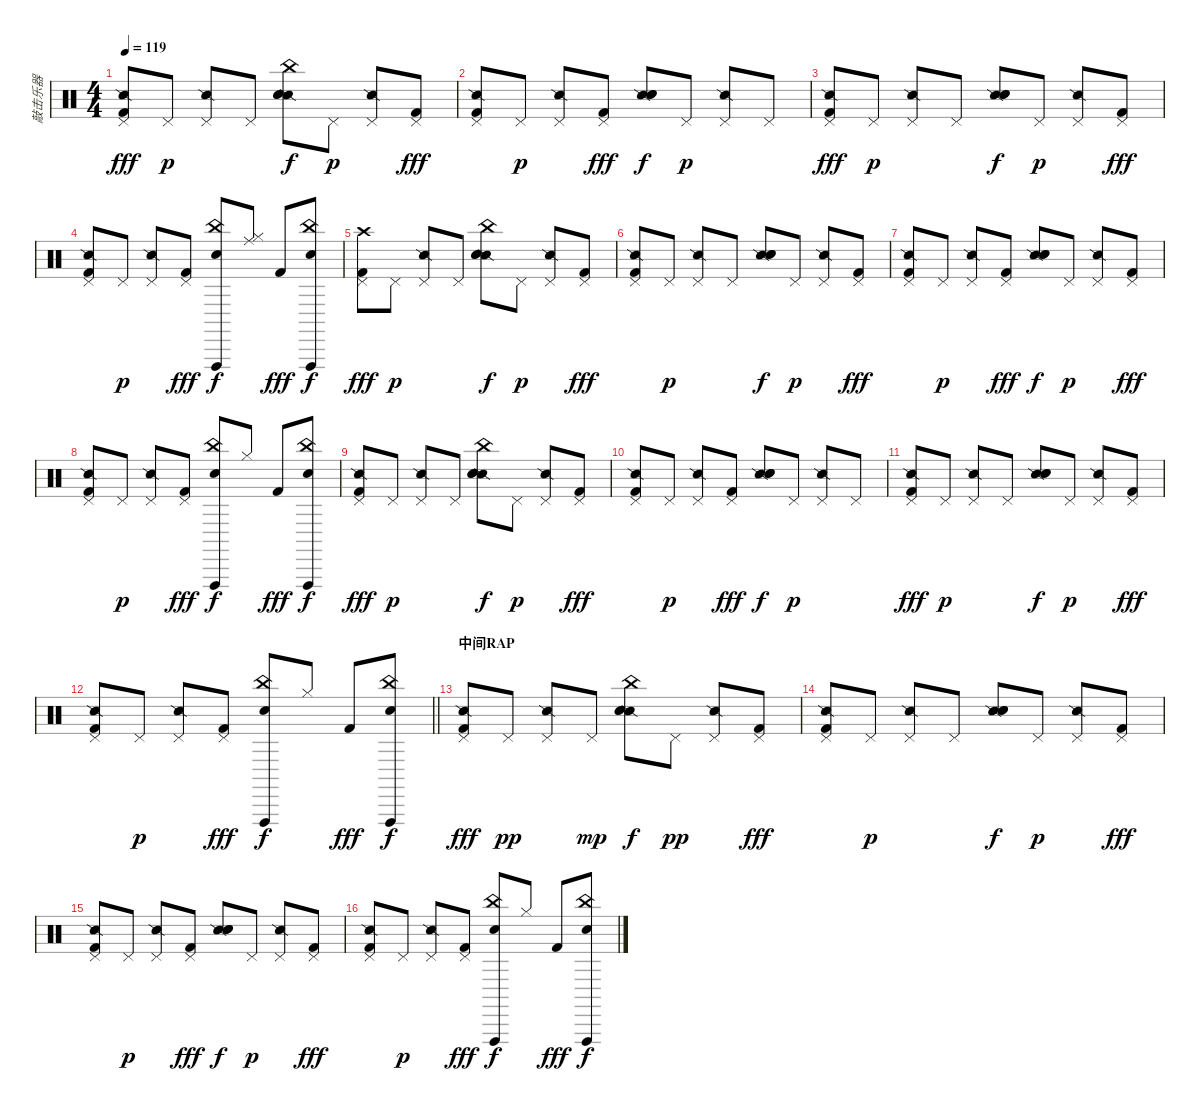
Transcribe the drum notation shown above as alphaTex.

\track ("敲击乐器" "敲击乐器") {instrument percussion}
\staff {score}
\articulation defaults
\ts (4 4)
\tempo 119
\clef neutral
\ks c
("Snare (side stick) 2" "Pedal Hi-Hat (hit)" "Kick (hit) 2").8{dy fff} "Pedal Hi-Hat (hit)".8{dy p} ("Snare (side stick) 2" "Pedal Hi-Hat (hit)").8 "Pedal Hi-Hat (hit)".8 ("Snare (side stick) 2" "Snare (hit) 2" "Hand Clap (hit)" "China (hit)").8{dy f} "Pedal Hi-Hat (hit)".8{dy p} ("Snare (side stick) 2" "Pedal Hi-Hat (hit)").8 ("Pedal Hi-Hat (hit)" "Kick (hit) 2").8{dy fff} |
("Snare (side stick) 2" "Pedal Hi-Hat (hit)" "Kick (hit) 2").8 "Pedal Hi-Hat (hit)".8{dy p} ("Snare (side stick) 2" "Pedal Hi-Hat (hit)").8 ("Pedal Hi-Hat (hit)" "Kick (hit) 2").8{dy fff} ("Snare (side stick) 2" "Snare (hit) 2" "Hand Clap (hit)").8{dy f} "Pedal Hi-Hat (hit)".8{dy p} ("Snare (side stick) 2" "Pedal Hi-Hat (hit)").8 "Pedal Hi-Hat (hit)".8 |
("Snare (side stick) 2" "Pedal Hi-Hat (hit)" "Kick (hit) 2").8{dy fff} "Pedal Hi-Hat (hit)".8{dy p} ("Snare (side stick) 2" "Pedal Hi-Hat (hit)").8 "Pedal Hi-Hat (hit)".8 ("Snare (side stick) 2" "Snare (hit) 2" "Hand Clap (hit)").8{dy f} "Pedal Hi-Hat (hit)".8{dy p} ("Snare (side stick) 2" "Pedal Hi-Hat (hit)").8 ("Pedal Hi-Hat (hit)" "Kick (hit) 2").8{dy fff} |
("Snare (side stick) 2" "Pedal Hi-Hat (hit)" "Kick (hit) 2").8 "Pedal Hi-Hat (hit)".8{dy p} ("Snare (side stick) 2" "Pedal Hi-Hat (hit)").8 ("Pedal Hi-Hat (hit)" "Kick (hit) 2").8{dy fff} ("China (hit)" "Vibraslap (hit)" "Hand Clap (hit)").8{dy f} ("Hi-Hat (closed)" "Ride (middle)").8 "Kick (hit) 2".8{dy fff} ("China (hit)" "Vibraslap (hit)" "Hand Clap (hit)").8{dy f} |
("Crash high (hit)" "Pedal Hi-Hat (hit)" "Kick (hit) 2").8{dy fff} "Pedal Hi-Hat (hit)".8{dy p} ("Snare (side stick) 2" "Pedal Hi-Hat (hit)").8 "Pedal Hi-Hat (hit)".8 ("Snare (side stick) 2" "Snare (hit) 2" "Hand Clap (hit)" "China (hit)").8{dy f} "Pedal Hi-Hat (hit)".8{dy p} ("Snare (side stick) 2" "Pedal Hi-Hat (hit)").8 ("Pedal Hi-Hat (hit)" "Kick (hit) 2").8{dy fff} |
("Snare (side stick) 2" "Pedal Hi-Hat (hit)" "Kick (hit) 2").8 "Pedal Hi-Hat (hit)".8{dy p} ("Snare (side stick) 2" "Pedal Hi-Hat (hit)").8 "Pedal Hi-Hat (hit)".8 ("Snare (side stick) 2" "Snare (hit) 2" "Hand Clap (hit)").8{dy f} "Pedal Hi-Hat (hit)".8{dy p} ("Snare (side stick) 2" "Pedal Hi-Hat (hit)").8 ("Pedal Hi-Hat (hit)" "Kick (hit) 2").8{dy fff} |
("Snare (side stick) 2" "Pedal Hi-Hat (hit)" "Kick (hit) 2").8 "Pedal Hi-Hat (hit)".8{dy p} ("Snare (side stick) 2" "Pedal Hi-Hat (hit)").8 ("Pedal Hi-Hat (hit)" "Kick (hit) 2").8{dy fff} ("Snare (side stick) 2" "Snare (hit) 2" "Hand Clap (hit)").8{dy f} "Pedal Hi-Hat (hit)".8{dy p} ("Snare (side stick) 2" "Pedal Hi-Hat (hit)").8 ("Pedal Hi-Hat (hit)" "Kick (hit) 2").8{dy fff} |
("Snare (side stick) 2" "Pedal Hi-Hat (hit)" "Kick (hit) 2").8 "Pedal Hi-Hat (hit)".8{dy p} ("Snare (side stick) 2" "Pedal Hi-Hat (hit)").8 ("Pedal Hi-Hat (hit)" "Kick (hit) 2").8{dy fff} ("China (hit)" "Vibraslap (hit)" "Hand Clap (hit)").8{dy f} "Hi-Hat (closed)".8 "Kick (hit) 2".8{dy fff} ("China (hit)" "Vibraslap (hit)" "Hand Clap (hit)").8{dy f} |
("Snare (side stick) 2" "Pedal Hi-Hat (hit)" "Kick (hit) 2").8{dy fff} "Pedal Hi-Hat (hit)".8{dy p} ("Snare (side stick) 2" "Pedal Hi-Hat (hit)").8 "Pedal Hi-Hat (hit)".8 ("Snare (side stick) 2" "Snare (hit) 2" "Hand Clap (hit)" "China (hit)").8{dy f} "Pedal Hi-Hat (hit)".8{dy p} ("Snare (side stick) 2" "Pedal Hi-Hat (hit)").8 ("Pedal Hi-Hat (hit)" "Kick (hit) 2").8{dy fff} |
("Snare (side stick) 2" "Pedal Hi-Hat (hit)" "Kick (hit) 2").8 "Pedal Hi-Hat (hit)".8{dy p} ("Snare (side stick) 2" "Pedal Hi-Hat (hit)").8 ("Pedal Hi-Hat (hit)" "Kick (hit) 2").8{dy fff} ("Snare (side stick) 2" "Snare (hit) 2" "Hand Clap (hit)").8{dy f} "Pedal Hi-Hat (hit)".8{dy p} ("Snare (side stick) 2" "Pedal Hi-Hat (hit)").8 "Pedal Hi-Hat (hit)".8 |
("Snare (side stick) 2" "Pedal Hi-Hat (hit)" "Kick (hit) 2").8{dy fff} "Pedal Hi-Hat (hit)".8{dy p} ("Snare (side stick) 2" "Pedal Hi-Hat (hit)").8 "Pedal Hi-Hat (hit)".8 ("Snare (side stick) 2" "Snare (hit) 2" "Hand Clap (hit)").8{dy f} "Pedal Hi-Hat (hit)".8{dy p} ("Snare (side stick) 2" "Pedal Hi-Hat (hit)").8 ("Pedal Hi-Hat (hit)" "Kick (hit) 2").8{dy fff} |
\barLineRight lightlight
("Snare (side stick) 2" "Pedal Hi-Hat (hit)" "Kick (hit) 2").8 "Pedal Hi-Hat (hit)".8{dy p} ("Snare (side stick) 2" "Pedal Hi-Hat (hit)").8 ("Pedal Hi-Hat (hit)" "Kick (hit) 2").8{dy fff} ("China (hit)" "Vibraslap (hit)" "Hand Clap (hit)").8{dy f} "Hi-Hat (closed)".8 "Kick (hit) 2".8{dy fff} ("China (hit)" "Vibraslap (hit)" "Hand Clap (hit)").8{dy f} |
\section ("" "中间RAP")
("Snare (side stick) 2" "Pedal Hi-Hat (hit)" "Kick (hit) 2").8{dy fff} "Pedal Hi-Hat (hit)".8{dy pp} ("Snare (side stick) 2" "Pedal Hi-Hat (hit)").8 "Pedal Hi-Hat (hit)".8{dy mp} ("Snare (side stick) 2" "Snare (hit) 2" "Hand Clap (hit)" "China (hit)").8{dy f} "Pedal Hi-Hat (hit)".8{dy pp} ("Snare (side stick) 2" "Pedal Hi-Hat (hit)").8 ("Pedal Hi-Hat (hit)" "Kick (hit) 2").8{dy fff} |
("Snare (side stick) 2" "Pedal Hi-Hat (hit)" "Kick (hit) 2").8 "Pedal Hi-Hat (hit)".8{dy p} ("Snare (side stick) 2" "Pedal Hi-Hat (hit)").8 "Pedal Hi-Hat (hit)".8 ("Snare (side stick) 2" "Snare (hit) 2" "Hand Clap (hit)").8{dy f} "Pedal Hi-Hat (hit)".8{dy p} ("Snare (side stick) 2" "Pedal Hi-Hat (hit)").8 ("Pedal Hi-Hat (hit)" "Kick (hit) 2").8{dy fff} |
("Snare (side stick) 2" "Pedal Hi-Hat (hit)" "Kick (hit) 2").8 "Pedal Hi-Hat (hit)".8{dy p} ("Snare (side stick) 2" "Pedal Hi-Hat (hit)").8 ("Pedal Hi-Hat (hit)" "Kick (hit) 2").8{dy fff} ("Snare (side stick) 2" "Snare (hit) 2" "Hand Clap (hit)").8{dy f} "Pedal Hi-Hat (hit)".8{dy p} ("Snare (side stick) 2" "Pedal Hi-Hat (hit)").8 ("Pedal Hi-Hat (hit)" "Kick (hit) 2").8{dy fff} |
("Snare (side stick) 2" "Pedal Hi-Hat (hit)" "Kick (hit) 2").8 "Pedal Hi-Hat (hit)".8{dy p} ("Snare (side stick) 2" "Pedal Hi-Hat (hit)").8 ("Pedal Hi-Hat (hit)" "Kick (hit) 2").8{dy fff} ("China (hit)" "Vibraslap (hit)" "Hand Clap (hit)").8{dy f} "Hi-Hat (closed)".8 "Kick (hit) 2".8{dy fff} ("China (hit)" "Vibraslap (hit)" "Hand Clap (hit)").8{dy f}
